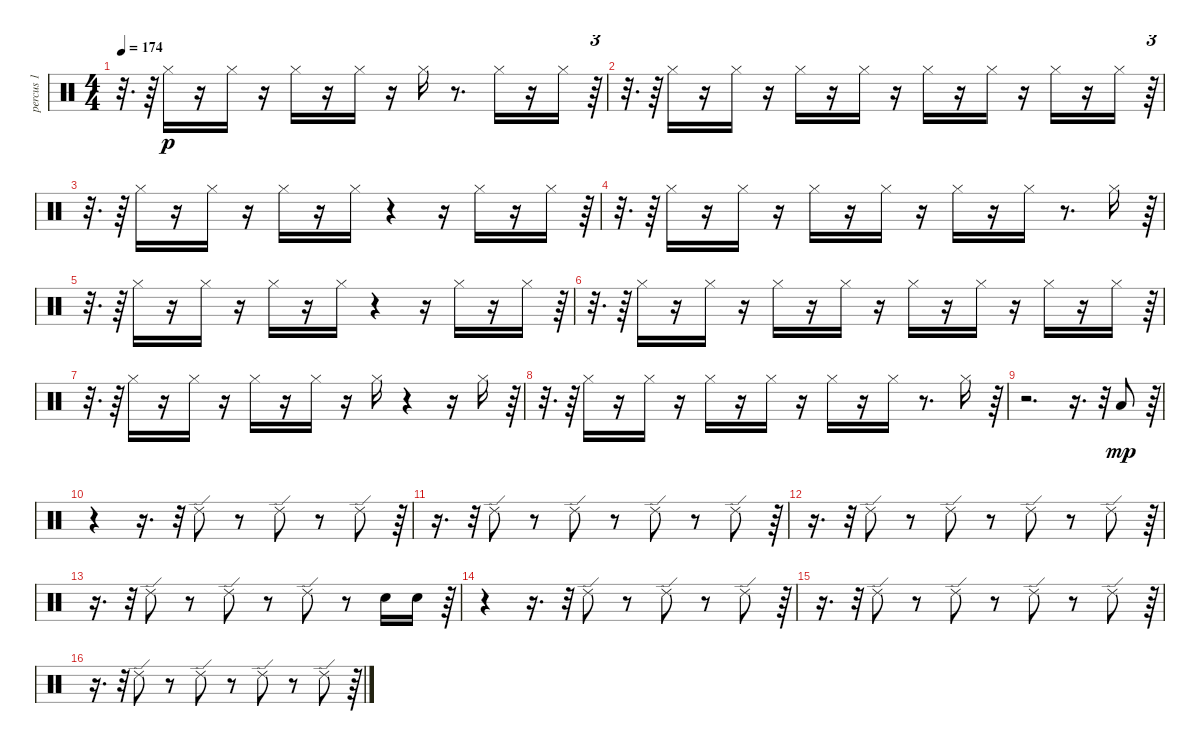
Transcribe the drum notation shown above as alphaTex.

\track ("percus 1" "percus 1") {instrument percussion}
\staff {score}
\articulation defaults
\ts (4 4)
\tempo 174
\clef neutral
\ks c
r.32{d dy p} r.64 "Hi-Hat (closed)".16 r.16 "Hi-Hat (closed)".16 r.16 "Hi-Hat (closed)".16 r.16 "Hi-Hat (closed)".16 r.16 "Hi-Hat (closed)".16 r.8{d} "Hi-Hat (closed)".16 r.16 "Hi-Hat (closed)".16 r.64{tu (3 2)} |
r.32{d} r.64 "Hi-Hat (closed)".16 r.16 "Hi-Hat (closed)".16 r.16 "Hi-Hat (closed)".16 r.16 "Hi-Hat (closed)".16 r.16 "Hi-Hat (closed)".16 r.16 "Hi-Hat (closed)".16 r.16 "Hi-Hat (closed)".16 r.16 "Hi-Hat (closed)".16 r.64{tu (3 2)} |
r.32{d} r.64 "Hi-Hat (closed)".16 r.16 "Hi-Hat (closed)".16 r.16 "Hi-Hat (closed)".16 r.16 "Hi-Hat (closed)".16 r.4 r.16 "Hi-Hat (closed)".16 r.16 "Hi-Hat (closed)".16 r.64{tu (3 2)} |
r.32{d} r.64 "Hi-Hat (closed)".16 r.16 "Hi-Hat (closed)".16 r.16 "Hi-Hat (closed)".16 r.16 "Hi-Hat (closed)".16 r.16 "Hi-Hat (closed)".16 r.16 "Hi-Hat (closed)".16 r.8{d} "Hi-Hat (closed)".16 r.64{tu (3 2)} |
r.32{d} r.64 "Hi-Hat (closed)".16 r.16 "Hi-Hat (closed)".16 r.16 "Hi-Hat (closed)".16 r.16 "Hi-Hat (closed)".16 r.4 r.16 "Hi-Hat (closed)".16 r.16 "Hi-Hat (closed)".16 r.64{tu (3 2)} |
r.32{d} r.64 "Hi-Hat (closed)".16 r.16 "Hi-Hat (closed)".16 r.16 "Hi-Hat (closed)".16 r.16 "Hi-Hat (closed)".16 r.16 "Hi-Hat (closed)".16 r.16 "Hi-Hat (closed)".16 r.16 "Hi-Hat (closed)".16 r.16 "Hi-Hat (closed)".16 r.64{tu (3 2)} |
r.32{d} r.64 "Hi-Hat (closed)".16 r.16 "Hi-Hat (closed)".16 r.16 "Hi-Hat (closed)".16 r.16 "Hi-Hat (closed)".16 r.16 "Hi-Hat (closed)".16 r.4 r.16 "Hi-Hat (closed)".16 r.64{tu (3 2)} |
r.32{d} r.64 "Hi-Hat (closed)".16 r.16 "Hi-Hat (closed)".16 r.16 "Hi-Hat (closed)".16 r.16 "Hi-Hat (closed)".16 r.16 "Hi-Hat (closed)".16 r.16 "Hi-Hat (closed)".16 r.8{d} "Hi-Hat (closed)".16 r.64{tu (3 2)} |
r.2{d} r.16{d} r.32{tu (3 2)} "Low Floor Tom (hit)".8{dy mp} r.64{tu (3 2)} |
r.4 r.16{d} r.32{tu (3 2)} "Ride (edge) 2".8 r.8 "Ride (edge) 2".8 r.8 "Ride (edge) 2".8 r.64{tu (3 2)} |
r.16{d} r.32{tu (3 2)} "Ride (edge) 2".8 r.8 "Ride (edge) 2".8 r.8 "Ride (edge) 2".8 r.8 "Ride (edge) 2".8 r.64{tu (3 2)} |
r.16{d} r.32{tu (3 2)} "Ride (edge) 2".8 r.8 "Ride (edge) 2".8 r.8 "Ride (edge) 2".8 r.8 "Ride (edge) 2".8 r.64{tu (3 2)} |
r.16{d} r.32{tu (3 2)} "Ride (edge) 2".8 r.8 "Ride (edge) 2".8 r.8 "Ride (edge) 2".8 r.8 "Electric Snare (hit)".16 "Electric Snare (hit)".16 r.64{tu (3 2)} |
r.4 r.16{d} r.32{tu (3 2)} "Ride (edge) 2".8 r.8 "Ride (edge) 2".8 r.8 "Ride (edge) 2".8 r.64{tu (3 2)} |
r.16{d} r.32{tu (3 2)} "Ride (edge) 2".8 r.8 "Ride (edge) 2".8 r.8 "Ride (edge) 2".8 r.8 "Ride (edge) 2".8 r.64{tu (3 2)} |
r.16{d} r.32{tu (3 2)} "Ride (edge) 2".8 r.8 "Ride (edge) 2".8 r.8 "Ride (edge) 2".8 r.8 "Ride (edge) 2".8 r.64{tu (3 2)}
